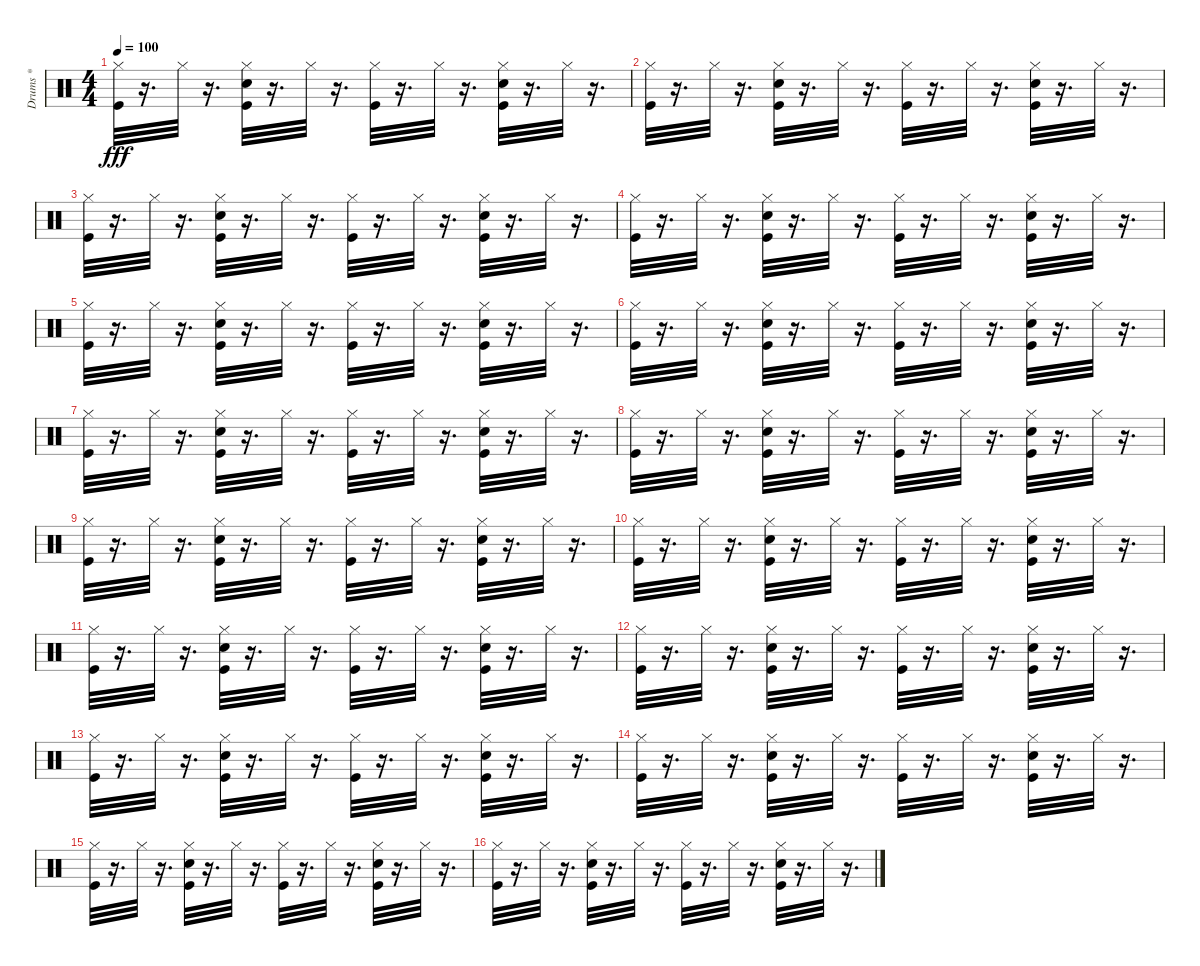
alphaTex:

\track ("Drums *" "Drums *") {instrument percussion}
\staff {score}
\articulation defaults
\ts (4 4)
\tempo 100
\clef neutral
\ks c
("Kick (hit)" "Hi-Hat (closed)").32{dy fff} r.16{d} "Hi-Hat (closed)".32 r.16{d} ("Electric Snare (hit)" "Kick (hit)" "Hi-Hat (closed)").32 r.16{d} "Hi-Hat (closed)".32 r.16{d} ("Hi-Hat (closed)" "Kick (hit)").32 r.16{d} "Hi-Hat (closed)".32 r.16{d} ("Hi-Hat (closed)" "Kick (hit)" "Electric Snare (hit)").32 r.16{d} "Hi-Hat (closed)".32 r.16{d} |
("Hi-Hat (closed)" "Kick (hit)").32 r.16{d} "Hi-Hat (closed)".32 r.16{d} ("Kick (hit)" "Electric Snare (hit)" "Hi-Hat (closed)").32 r.16{d} "Hi-Hat (closed)".32 r.16{d} ("Kick (hit)" "Hi-Hat (closed)").32 r.16{d} "Hi-Hat (closed)".32 r.16{d} ("Kick (hit)" "Hi-Hat (closed)" "Electric Snare (hit)").32 r.16{d} "Hi-Hat (closed)".32 r.16{d} |
("Kick (hit)" "Hi-Hat (closed)").32 r.16{d} "Hi-Hat (closed)".32 r.16{d} ("Kick (hit)" "Hi-Hat (closed)" "Electric Snare (hit)").32 r.16{d} "Hi-Hat (closed)".32 r.16{d} ("Hi-Hat (closed)" "Kick (hit)").32 r.16{d} "Hi-Hat (closed)".32 r.16{d} ("Electric Snare (hit)" "Kick (hit)" "Hi-Hat (closed)").32 r.16{d} "Hi-Hat (closed)".32 r.16{d} |
("Kick (hit)" "Hi-Hat (closed)").32 r.16{d} "Hi-Hat (closed)".32 r.16{d} ("Kick (hit)" "Electric Snare (hit)" "Hi-Hat (closed)").32 r.16{d} "Hi-Hat (closed)".32 r.16{d} ("Hi-Hat (closed)" "Kick (hit)").32 r.16{d} "Hi-Hat (closed)".32 r.16{d} ("Kick (hit)" "Electric Snare (hit)" "Hi-Hat (closed)").32 r.16{d} "Hi-Hat (closed)".32 r.16{d} |
("Kick (hit)" "Hi-Hat (closed)").32 r.16{d} "Hi-Hat (closed)".32 r.16{d} ("Electric Snare (hit)" "Kick (hit)" "Hi-Hat (closed)").32 r.16{d} "Hi-Hat (closed)".32 r.16{d} ("Hi-Hat (closed)" "Kick (hit)").32 r.16{d} "Hi-Hat (closed)".32 r.16{d} ("Hi-Hat (closed)" "Kick (hit)" "Electric Snare (hit)").32 r.16{d} "Hi-Hat (closed)".32 r.16{d} |
("Kick (hit)" "Hi-Hat (closed)").32 r.16{d} "Hi-Hat (closed)".32 r.16{d} ("Hi-Hat (closed)" "Kick (hit)" "Electric Snare (hit)").32 r.16{d} "Hi-Hat (closed)".32 r.16{d} ("Kick (hit)" "Hi-Hat (closed)").32 r.16{d} "Hi-Hat (closed)".32 r.16{d} ("Electric Snare (hit)" "Kick (hit)" "Hi-Hat (closed)").32 r.16{d} "Hi-Hat (closed)".32 r.16{d} |
("Kick (hit)" "Hi-Hat (closed)").32 r.16{d} "Hi-Hat (closed)".32 r.16{d} ("Electric Snare (hit)" "Hi-Hat (closed)" "Kick (hit)").32 r.16{d} "Hi-Hat (closed)".32 r.16{d} ("Kick (hit)" "Hi-Hat (closed)").32 r.16{d} "Hi-Hat (closed)".32 r.16{d} ("Kick (hit)" "Electric Snare (hit)" "Hi-Hat (closed)").32 r.16{d} "Hi-Hat (closed)".32 r.16{d} |
("Hi-Hat (closed)" "Kick (hit)").32 r.16{d} "Hi-Hat (closed)".32 r.16{d} ("Kick (hit)" "Electric Snare (hit)" "Hi-Hat (closed)").32 r.16{d} "Hi-Hat (closed)".32 r.16{d} ("Kick (hit)" "Hi-Hat (closed)").32 r.16{d} "Hi-Hat (closed)".32 r.16{d} ("Kick (hit)" "Electric Snare (hit)" "Hi-Hat (closed)").32 r.16{d} "Hi-Hat (closed)".32 r.16{d} |
("Kick (hit)" "Hi-Hat (closed)").32 r.16{d} "Hi-Hat (closed)".32 r.16{d} ("Electric Snare (hit)" "Hi-Hat (closed)" "Kick (hit)").32 r.16{d} "Hi-Hat (closed)".32 r.16{d} ("Hi-Hat (closed)" "Kick (hit)").32 r.16{d} "Hi-Hat (closed)".32 r.16{d} ("Hi-Hat (closed)" "Electric Snare (hit)" "Kick (hit)").32 r.16{d} "Hi-Hat (closed)".32 r.16{d} |
("Hi-Hat (closed)" "Kick (hit)").32 r.16{d} "Hi-Hat (closed)".32 r.16{d} ("Kick (hit)" "Hi-Hat (closed)" "Electric Snare (hit)").32 r.16{d} "Hi-Hat (closed)".32 r.16{d} ("Hi-Hat (closed)" "Kick (hit)").32 r.16{d} "Hi-Hat (closed)".32 r.16{d} ("Electric Snare (hit)" "Kick (hit)" "Hi-Hat (closed)").32 r.16{d} "Hi-Hat (closed)".32 r.16{d} |
("Hi-Hat (closed)" "Kick (hit)").32 r.16{d} "Hi-Hat (closed)".32 r.16{d} ("Kick (hit)" "Electric Snare (hit)" "Hi-Hat (closed)").32 r.16{d} "Hi-Hat (closed)".32 r.16{d} ("Kick (hit)" "Hi-Hat (closed)").32 r.16{d} "Hi-Hat (closed)".32 r.16{d} ("Kick (hit)" "Electric Snare (hit)" "Hi-Hat (closed)").32 r.16{d} "Hi-Hat (closed)".32 r.16{d} |
("Kick (hit)" "Hi-Hat (closed)").32 r.16{d} "Hi-Hat (closed)".32 r.16{d} ("Hi-Hat (closed)" "Kick (hit)" "Electric Snare (hit)").32 r.16{d} "Hi-Hat (closed)".32 r.16{d} ("Kick (hit)" "Hi-Hat (closed)").32 r.16{d} "Hi-Hat (closed)".32 r.16{d} ("Kick (hit)" "Electric Snare (hit)" "Hi-Hat (closed)").32 r.16{d} "Hi-Hat (closed)".32 r.16{d} |
("Kick (hit)" "Hi-Hat (closed)").32 r.16{d} "Hi-Hat (closed)".32 r.16{d} ("Kick (hit)" "Electric Snare (hit)" "Hi-Hat (closed)").32 r.16{d} "Hi-Hat (closed)".32 r.16{d} ("Kick (hit)" "Hi-Hat (closed)").32 r.16{d} "Hi-Hat (closed)".32 r.16{d} ("Electric Snare (hit)" "Hi-Hat (closed)" "Kick (hit)").32 r.16{d} "Hi-Hat (closed)".32 r.16{d} |
("Hi-Hat (closed)" "Kick (hit)").32 r.16{d} "Hi-Hat (closed)".32 r.16{d} ("Kick (hit)" "Electric Snare (hit)" "Hi-Hat (closed)").32 r.16{d} "Hi-Hat (closed)".32 r.16{d} ("Hi-Hat (closed)" "Kick (hit)").32 r.16{d} "Hi-Hat (closed)".32 r.16{d} ("Hi-Hat (closed)" "Kick (hit)" "Electric Snare (hit)").32 r.16{d} "Hi-Hat (closed)".32 r.16{d} |
("Kick (hit)" "Hi-Hat (closed)").32 r.16{d} "Hi-Hat (closed)".32 r.16{d} ("Hi-Hat (closed)" "Kick (hit)" "Electric Snare (hit)").32 r.16{d} "Hi-Hat (closed)".32 r.16{d} ("Kick (hit)" "Hi-Hat (closed)").32 r.16{d} "Hi-Hat (closed)".32 r.16{d} ("Kick (hit)" "Hi-Hat (closed)" "Electric Snare (hit)").32 r.16{d} "Hi-Hat (closed)".32 r.16{d} |
("Hi-Hat (closed)" "Kick (hit)").32 r.16{d} "Hi-Hat (closed)".32 r.16{d} ("Hi-Hat (closed)" "Kick (hit)" "Electric Snare (hit)").32 r.16{d} "Hi-Hat (closed)".32 r.16{d} ("Kick (hit)" "Hi-Hat (closed)").32 r.16{d} "Hi-Hat (closed)".32 r.16{d} ("Hi-Hat (closed)" "Kick (hit)" "Electric Snare (hit)").32 r.16{d} "Hi-Hat (closed)".32 r.16{d}
